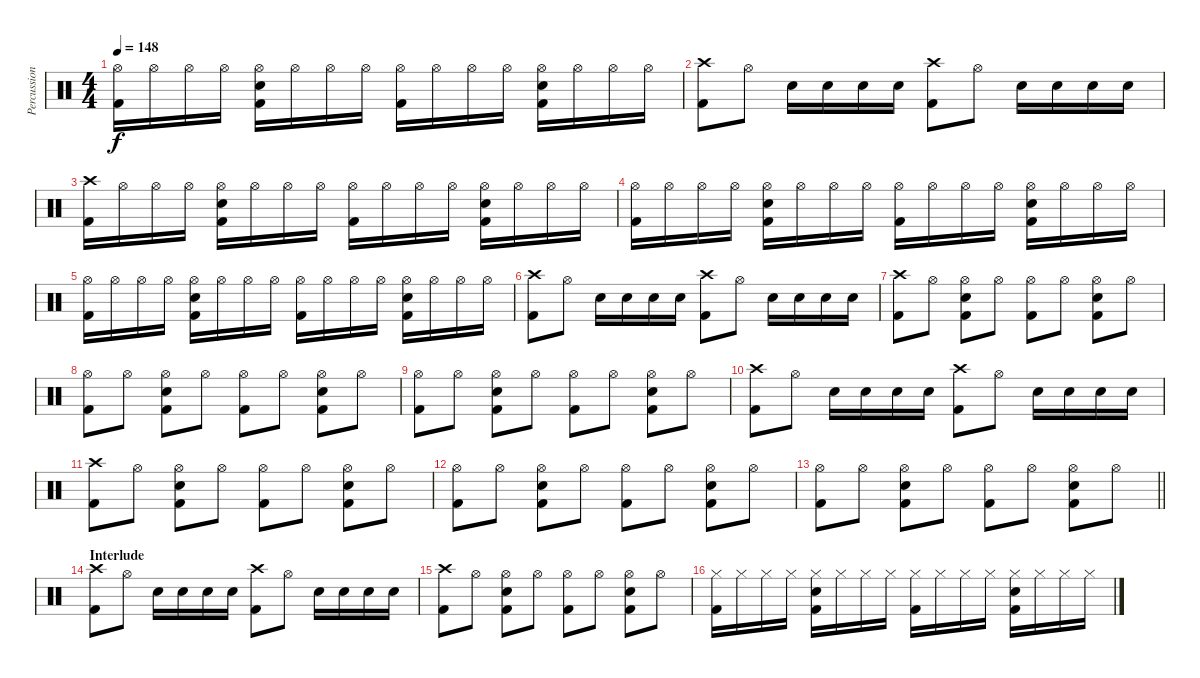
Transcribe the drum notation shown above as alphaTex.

\track ("Percussion" "Percussion") {instrument percussion}
\staff {score}
\articulation defaults
\ts (4 4)
\tempo 148
\clef neutral
\ks c
("Hi-Hat (open)" "Kick (hit) 2").16{dy f} "Hi-Hat (open)".16 "Hi-Hat (open)".16 "Hi-Hat (open)".16 ("Hi-Hat (open)" "Electric Snare (hit)" "Kick (hit) 2").16 "Hi-Hat (open)".16 "Hi-Hat (open)".16 "Hi-Hat (open)".16 ("Hi-Hat (open)" "Kick (hit) 2").16 "Hi-Hat (open)".16 "Hi-Hat (open)".16 "Hi-Hat (open)".16 ("Hi-Hat (open)" "Electric Snare (hit)" "Kick (hit) 2").16 "Hi-Hat (open)".16 "Hi-Hat (open)".16 "Hi-Hat (open)".16 |
("Crash high (hit)" "Kick (hit) 2").8 "Hi-Hat (open)".8 "Electric Snare (hit)".16 "Electric Snare (hit)".16 "Electric Snare (hit)".16 "Electric Snare (hit)".16 ("Crash high (hit)" "Kick (hit) 2").8 "Hi-Hat (open)".8 "Electric Snare (hit)".16 "Electric Snare (hit)".16 "Electric Snare (hit)".16 "Electric Snare (hit)".16 |
("Crash high (hit)" "Kick (hit) 2").16 "Hi-Hat (open)".16 "Hi-Hat (open)".16 "Hi-Hat (open)".16 ("Hi-Hat (open)" "Electric Snare (hit)" "Kick (hit) 2").16 "Hi-Hat (open)".16 "Hi-Hat (open)".16 "Hi-Hat (open)".16 ("Hi-Hat (open)" "Kick (hit) 2").16 "Hi-Hat (open)".16 "Hi-Hat (open)".16 "Hi-Hat (open)".16 ("Hi-Hat (open)" "Electric Snare (hit)" "Kick (hit) 2").16 "Hi-Hat (open)".16 "Hi-Hat (open)".16 "Hi-Hat (open)".16 |
("Hi-Hat (open)" "Kick (hit) 2").16 "Hi-Hat (open)".16 "Hi-Hat (open)".16 "Hi-Hat (open)".16 ("Hi-Hat (open)" "Electric Snare (hit)" "Kick (hit) 2").16 "Hi-Hat (open)".16 "Hi-Hat (open)".16 "Hi-Hat (open)".16 ("Hi-Hat (open)" "Kick (hit) 2").16 "Hi-Hat (open)".16 "Hi-Hat (open)".16 "Hi-Hat (open)".16 ("Hi-Hat (open)" "Electric Snare (hit)" "Kick (hit) 2").16 "Hi-Hat (open)".16 "Hi-Hat (open)".16 "Hi-Hat (open)".16 |
("Hi-Hat (open)" "Kick (hit) 2").16 "Hi-Hat (open)".16 "Hi-Hat (open)".16 "Hi-Hat (open)".16 ("Hi-Hat (open)" "Electric Snare (hit)" "Kick (hit) 2").16 "Hi-Hat (open)".16 "Hi-Hat (open)".16 "Hi-Hat (open)".16 ("Hi-Hat (open)" "Kick (hit) 2").16 "Hi-Hat (open)".16 "Hi-Hat (open)".16 "Hi-Hat (open)".16 ("Hi-Hat (open)" "Electric Snare (hit)" "Kick (hit) 2").16 "Hi-Hat (open)".16 "Hi-Hat (open)".16 "Hi-Hat (open)".16 |
("Crash high (hit)" "Kick (hit) 2").8 "Hi-Hat (open)".8 "Electric Snare (hit)".16 "Electric Snare (hit)".16 "Electric Snare (hit)".16 "Electric Snare (hit)".16 ("Crash high (hit)" "Kick (hit) 2").8 "Hi-Hat (open)".8 "Electric Snare (hit)".16 "Electric Snare (hit)".16 "Electric Snare (hit)".16 "Electric Snare (hit)".16 |
("Crash high (hit)" "Kick (hit) 2").8 "Hi-Hat (open)".8 ("Hi-Hat (open)" "Electric Snare (hit)" "Kick (hit) 2").8 "Hi-Hat (open)".8 ("Hi-Hat (open)" "Kick (hit) 2").8 "Hi-Hat (open)".8 ("Hi-Hat (open)" "Electric Snare (hit)" "Kick (hit) 2").8 "Hi-Hat (open)".8 |
("Hi-Hat (open)" "Kick (hit) 2").8 "Hi-Hat (open)".8 ("Hi-Hat (open)" "Electric Snare (hit)" "Kick (hit) 2").8 "Hi-Hat (open)".8 ("Hi-Hat (open)" "Kick (hit) 2").8 "Hi-Hat (open)".8 ("Hi-Hat (open)" "Electric Snare (hit)" "Kick (hit) 2").8 "Hi-Hat (open)".8 |
("Hi-Hat (open)" "Kick (hit) 2").8 "Hi-Hat (open)".8 ("Hi-Hat (open)" "Electric Snare (hit)" "Kick (hit) 2").8 "Hi-Hat (open)".8 ("Hi-Hat (open)" "Kick (hit) 2").8 "Hi-Hat (open)".8 ("Hi-Hat (open)" "Electric Snare (hit)" "Kick (hit) 2").8 "Hi-Hat (open)".8 |
("Crash high (hit)" "Kick (hit) 2").8 "Hi-Hat (open)".8 "Electric Snare (hit)".16 "Electric Snare (hit)".16 "Electric Snare (hit)".16 "Electric Snare (hit)".16 ("Crash high (hit)" "Kick (hit) 2").8 "Hi-Hat (open)".8 "Electric Snare (hit)".16 "Electric Snare (hit)".16 "Electric Snare (hit)".16 "Electric Snare (hit)".16 |
("Crash high (hit)" "Kick (hit) 2").8 "Hi-Hat (open)".8 ("Hi-Hat (open)" "Electric Snare (hit)" "Kick (hit) 2").8 "Hi-Hat (open)".8 ("Hi-Hat (open)" "Kick (hit) 2").8 "Hi-Hat (open)".8 ("Hi-Hat (open)" "Electric Snare (hit)" "Kick (hit) 2").8 "Hi-Hat (open)".8 |
("Hi-Hat (open)" "Kick (hit) 2").8 "Hi-Hat (open)".8 ("Hi-Hat (open)" "Electric Snare (hit)" "Kick (hit) 2").8 "Hi-Hat (open)".8 ("Hi-Hat (open)" "Kick (hit) 2").8 "Hi-Hat (open)".8 ("Hi-Hat (open)" "Electric Snare (hit)" "Kick (hit) 2").8 "Hi-Hat (open)".8 |
\barLineRight lightlight
("Hi-Hat (open)" "Kick (hit) 2").8 "Hi-Hat (open)".8 ("Hi-Hat (open)" "Electric Snare (hit)" "Kick (hit) 2").8 "Hi-Hat (open)".8 ("Hi-Hat (open)" "Kick (hit) 2").8 "Hi-Hat (open)".8 ("Hi-Hat (open)" "Electric Snare (hit)" "Kick (hit) 2").8 "Hi-Hat (open)".8 |
\section ("" "Interlude")
("Crash high (hit)" "Kick (hit) 2").8 "Hi-Hat (open)".8 "Electric Snare (hit)".16 "Electric Snare (hit)".16 "Electric Snare (hit)".16 "Electric Snare (hit)".16 ("Crash high (hit)" "Kick (hit) 2").8 "Hi-Hat (open)".8 "Electric Snare (hit)".16 "Electric Snare (hit)".16 "Electric Snare (hit)".16 "Electric Snare (hit)".16 |
("Crash high (hit)" "Kick (hit) 2").8 "Hi-Hat (open)".8 ("Hi-Hat (open)" "Electric Snare (hit)" "Kick (hit) 2").8 "Hi-Hat (open)".8 ("Hi-Hat (open)" "Kick (hit) 2").8 "Hi-Hat (open)".8 ("Hi-Hat (open)" "Electric Snare (hit)" "Kick (hit) 2").8 "Hi-Hat (open)".8 |
("Hi-Hat (closed)" "Kick (hit) 2").16 "Hi-Hat (closed)".16 "Hi-Hat (closed)".16 "Hi-Hat (closed)".16 ("Hi-Hat (closed)" "Electric Snare (hit)" "Kick (hit) 2").16 "Hi-Hat (closed)".16 "Hi-Hat (closed)".16 "Hi-Hat (closed)".16 ("Hi-Hat (closed)" "Kick (hit) 2").16 "Hi-Hat (closed)".16 "Hi-Hat (closed)".16 "Hi-Hat (closed)".16 ("Hi-Hat (closed)" "Electric Snare (hit)" "Kick (hit) 2").16 "Hi-Hat (closed)".16 "Hi-Hat (closed)".16 "Hi-Hat (closed)".16
